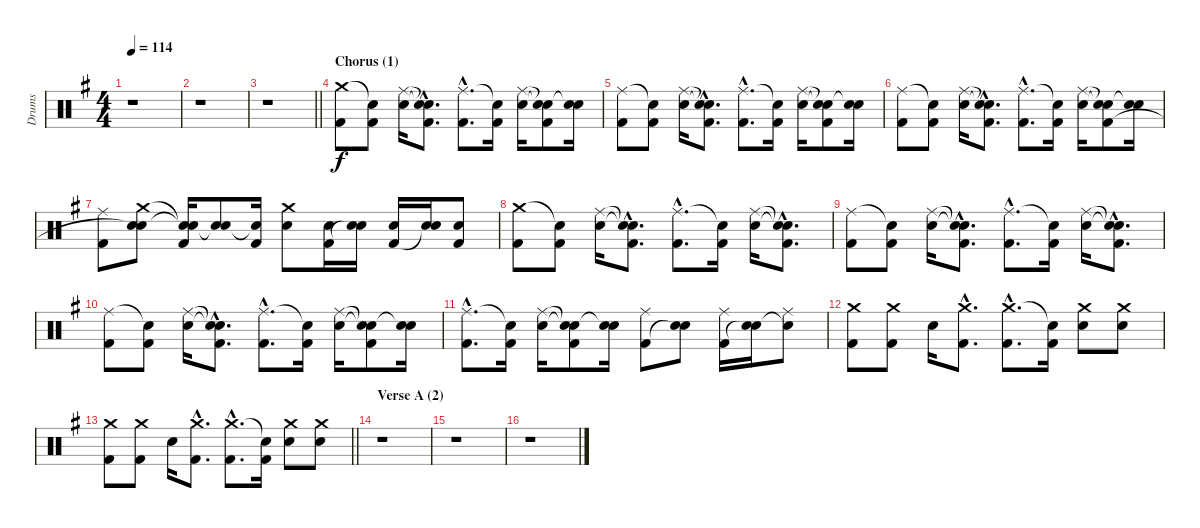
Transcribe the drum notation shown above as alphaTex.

\track ("Drums" "Drums") {instrument percussion}
\staff {score}
\articulation defaults
\ts (4 4)
\tempo 114
\clef neutral
\ks eminor
r.1{dy f} |
r.1 |
\barLineRight lightlight
r.1 |
\section ("" "Chorus (1)")
("Crash medium (hit)" "Kick (hit) 2").8 ("Snare (hit)"{t} "Kick (hit) 2").8 ("Ride (middle)" "Electric Snare (hit)").16 ("Snare (hit)"{hac t} "Snare (hit)"{hac t} "Kick (hit) 2"{hac}).8{d} ("Ride (middle)"{hac} "Kick (hit) 2"{hac}).8{d} ("Snare (hit)"{t} "Kick (hit) 2").16 ("Ride (middle)" "Electric Snare (hit)").16 ("Snare (hit)"{t} "Snare (hit)"{t} "Kick (hit) 2").8 ("Electric Snare (hit)" "Snare (hit)"{t}).16 |
("Ride (middle)" "Kick (hit) 2").8 ("Snare (hit)"{t} "Kick (hit) 2").8 ("Ride (middle)" "Electric Snare (hit)").16 ("Snare (hit)"{hac t} "Snare (hit)"{hac t} "Kick (hit) 2"{hac}).8{d} ("Ride (middle)"{hac} "Kick (hit) 2"{hac}).8{d} ("Snare (hit)"{t} "Kick (hit) 2").16 ("Ride (middle)" "Electric Snare (hit)").16 ("Snare (hit)"{t} "Snare (hit)"{t} "Kick (hit) 2").8 ("Electric Snare (hit)" "Snare (hit)"{t}).16 |
("Ride (middle)" "Kick (hit) 2").8 ("Snare (hit)"{t} "Kick (hit) 2").8 ("Ride (middle)" "Electric Snare (hit)").16 ("Snare (hit)"{hac t} "Snare (hit)"{hac t} "Kick (hit) 2"{hac}).8{d} ("Ride (middle)"{hac} "Kick (hit) 2"{hac}).8{d} ("Snare (hit)"{t} "Kick (hit) 2").16 ("Ride (middle)" "Electric Snare (hit)").16 ("Snare (hit)"{t} "Snare (hit)"{t} "Kick (hit) 2").8 ("Electric Snare (hit)" "Snare (hit)"{t}).16 |
("Ride (middle)" "Kick (hit) 2").8 ("Crash medium (hit)" "Electric Snare (hit)" "Snare (hit)"{t}).8 ("Snare (hit)"{t} "Snare (hit)"{t} "Kick (hit) 2").16 ("Electric Snare (hit)" "Snare (hit)"{t}).8 ("Snare (hit)"{t} "Kick (hit) 2").16 ("Crash medium (hit)" "Electric Snare (hit)").8 ("Electric Snare (hit)" "Kick (hit) 2").16 ("Electric Snare (hit)" "Snare (hit)"{t}).16 ("Electric Snare (hit)" "Kick (hit) 2").16 ("Electric Snare (hit)" "Snare (hit)"{t}).16 ("Electric Snare (hit)" "Kick (hit) 2").8 |
("Crash medium (hit)" "Kick (hit) 2").8 ("Snare (hit)"{t} "Kick (hit) 2").8 ("Ride (middle)" "Electric Snare (hit)").16 ("Snare (hit)"{hac t} "Snare (hit)"{hac t} "Kick (hit) 2"{hac}).8{d} ("Ride (middle)"{hac} "Kick (hit) 2"{hac}).8{d} ("Snare (hit)"{t} "Kick (hit) 2").16 ("Ride (middle)" "Electric Snare (hit)").16 ("Snare (hit)"{hac t} "Snare (hit)"{hac t} "Kick (hit) 2"{hac}).8{d} |
("Ride (middle)" "Kick (hit) 2").8 ("Snare (hit)"{t} "Kick (hit) 2").8 ("Ride (middle)" "Electric Snare (hit)").16 ("Snare (hit)"{hac t} "Snare (hit)"{hac t} "Kick (hit) 2"{hac}).8{d} ("Ride (middle)"{hac} "Kick (hit) 2"{hac}).8{d} ("Snare (hit)"{t} "Kick (hit) 2").16 ("Ride (middle)" "Electric Snare (hit)").16 ("Snare (hit)"{hac t} "Snare (hit)"{hac t} "Kick (hit) 2"{hac}).8{d} |
("Ride (middle)" "Kick (hit) 2").8 ("Snare (hit)"{t} "Kick (hit) 2").8 ("Ride (middle)" "Electric Snare (hit)").16 ("Snare (hit)"{hac t} "Snare (hit)"{hac t} "Kick (hit) 2"{hac}).8{d} ("Ride (middle)"{hac} "Kick (hit) 2"{hac}).8{d} ("Snare (hit)"{t} "Kick (hit) 2").16 ("Ride (middle)" "Electric Snare (hit)").16 ("Snare (hit)"{t} "Snare (hit)"{t} "Kick (hit) 2").8 ("Electric Snare (hit)" "Snare (hit)"{t}).16 |
("Ride (middle)"{hac} "Kick (hit) 2"{hac}).8{d} ("Snare (hit)"{t} "Kick (hit) 2").16 ("Ride (middle)" "Electric Snare (hit)").16 ("Snare (hit)"{t} "Snare (hit)"{t} "Kick (hit) 2").8 ("Electric Snare (hit)" "Snare (hit)"{t}).16 ("Ride (middle)" "Kick (hit) 2").8 ("Electric Snare (hit)" "Snare (hit)"{t}).8 ("Ride (middle)" "Kick (hit) 2").16 ("Electric Snare (hit)" "Snare (hit)"{t}).16 ("Ride (middle)" "Snare (hit)"{t}).8 |
("Crash medium (hit)" "Kick (hit) 2").8 ("Crash medium (hit)" "Kick (hit) 2").8 "Electric Snare (hit)".16 ("Crash medium (hit)"{hac} "Kick (hit) 2"{hac}).8{d} ("Crash medium (hit)"{hac} "Kick (hit) 2"{hac}).8{d} ("Snare (hit)"{t} "Kick (hit) 2").16 ("Crash medium (hit)" "Electric Snare (hit)").8 ("Crash medium (hit)" "Electric Snare (hit)").8 |
\barLineRight lightlight
("Crash medium (hit)" "Kick (hit) 2").8 ("Crash medium (hit)" "Kick (hit) 2").8 "Electric Snare (hit)".16 ("Crash medium (hit)"{hac} "Kick (hit) 2"{hac}).8{d} ("Crash medium (hit)"{hac} "Kick (hit) 2"{hac}).8{d} ("Snare (hit)"{t} "Kick (hit) 2").16 ("Crash medium (hit)" "Electric Snare (hit)").8 ("Crash medium (hit)" "Electric Snare (hit)").8 |
\section ("" "Verse A (2)")
r.1 |
r.1 |
r.1
